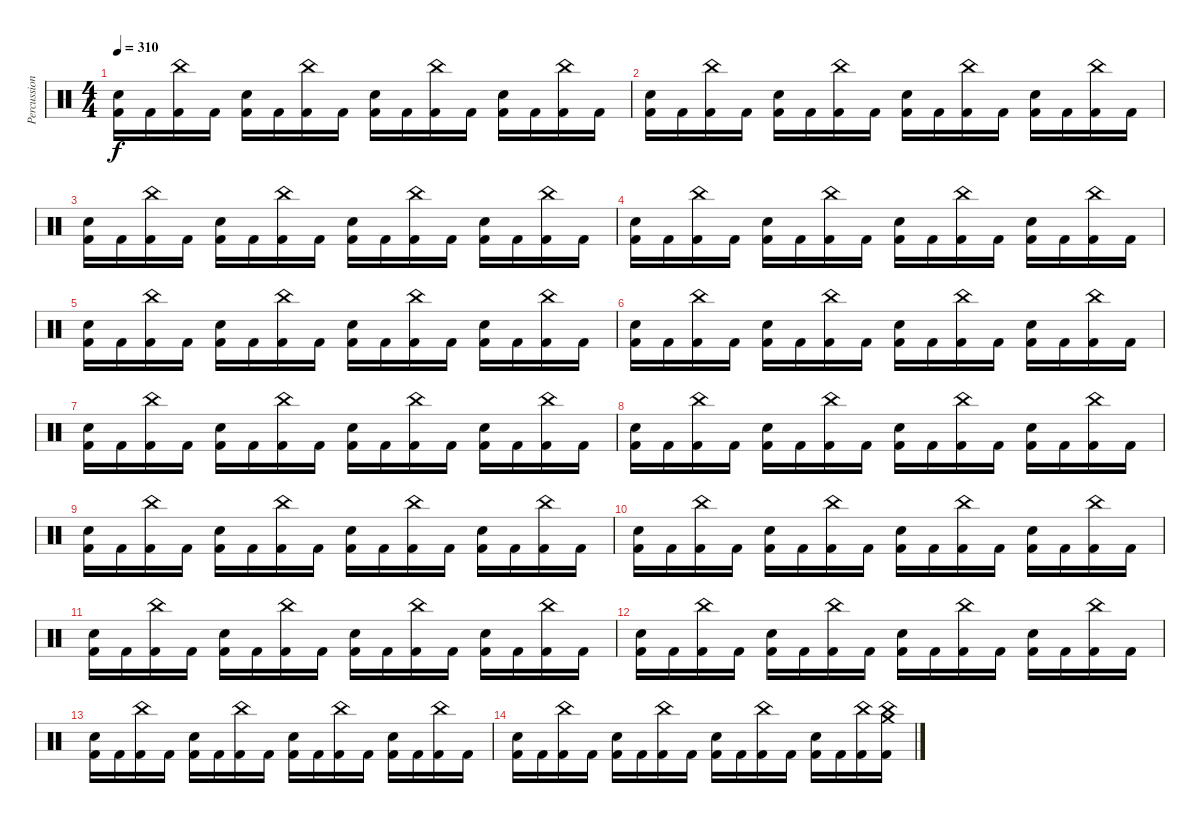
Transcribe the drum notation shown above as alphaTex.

\track ("Percussions" "Percussion") {instrument percussion}
\staff {score}
\articulation defaults
\ts (4 4)
\tempo 310
\clef neutral
\ks c
("Snare (hit) 2" "Kick (hit) 2").16{dy f} "Kick (hit) 2".16 ("China (hit)" "Kick (hit) 2").16 "Kick (hit) 2".16 ("Snare (hit) 2" "Kick (hit) 2").16 "Kick (hit) 2".16 ("China (hit)" "Kick (hit) 2").16 "Kick (hit) 2".16 ("Snare (hit) 2" "Kick (hit) 2").16 "Kick (hit) 2".16 ("China (hit)" "Kick (hit) 2").16 "Kick (hit) 2".16 ("Snare (hit) 2" "Kick (hit) 2").16 "Kick (hit) 2".16 ("China (hit)" "Kick (hit) 2").16 "Kick (hit) 2".16 |
("Snare (hit) 2" "Kick (hit) 2").16 "Kick (hit) 2".16 ("China (hit)" "Kick (hit) 2").16 "Kick (hit) 2".16 ("Snare (hit) 2" "Kick (hit) 2").16 "Kick (hit) 2".16 ("China (hit)" "Kick (hit) 2").16 "Kick (hit) 2".16 ("Snare (hit) 2" "Kick (hit) 2").16 "Kick (hit) 2".16 ("China (hit)" "Kick (hit) 2").16 "Kick (hit) 2".16 ("Snare (hit) 2" "Kick (hit) 2").16 "Kick (hit) 2".16 ("China (hit)" "Kick (hit) 2").16 "Kick (hit) 2".16 |
("Snare (hit) 2" "Kick (hit) 2").16 "Kick (hit) 2".16 ("China (hit)" "Kick (hit) 2").16 "Kick (hit) 2".16 ("Snare (hit) 2" "Kick (hit) 2").16 "Kick (hit) 2".16 ("China (hit)" "Kick (hit) 2").16 "Kick (hit) 2".16 ("Snare (hit) 2" "Kick (hit) 2").16 "Kick (hit) 2".16 ("China (hit)" "Kick (hit) 2").16 "Kick (hit) 2".16 ("Snare (hit) 2" "Kick (hit) 2").16 "Kick (hit) 2".16 ("China (hit)" "Kick (hit) 2").16 "Kick (hit) 2".16 |
("Snare (hit) 2" "Kick (hit) 2").16 "Kick (hit) 2".16 ("China (hit)" "Kick (hit) 2").16 "Kick (hit) 2".16 ("Snare (hit) 2" "Kick (hit) 2").16 "Kick (hit) 2".16 ("China (hit)" "Kick (hit) 2").16 "Kick (hit) 2".16 ("Snare (hit) 2" "Kick (hit) 2").16 "Kick (hit) 2".16 ("China (hit)" "Kick (hit) 2").16 "Kick (hit) 2".16 ("Snare (hit) 2" "Kick (hit) 2").16 "Kick (hit) 2".16 ("China (hit)" "Kick (hit) 2").16 "Kick (hit) 2".16 |
("Snare (hit) 2" "Kick (hit) 2").16 "Kick (hit) 2".16 ("China (hit)" "Kick (hit) 2").16 "Kick (hit) 2".16 ("Snare (hit) 2" "Kick (hit) 2").16 "Kick (hit) 2".16 ("China (hit)" "Kick (hit) 2").16 "Kick (hit) 2".16 ("Snare (hit) 2" "Kick (hit) 2").16 "Kick (hit) 2".16 ("China (hit)" "Kick (hit) 2").16 "Kick (hit) 2".16 ("Snare (hit) 2" "Kick (hit) 2").16 "Kick (hit) 2".16 ("China (hit)" "Kick (hit) 2").16 "Kick (hit) 2".16 |
("Snare (hit) 2" "Kick (hit) 2").16 "Kick (hit) 2".16 ("China (hit)" "Kick (hit) 2").16 "Kick (hit) 2".16 ("Snare (hit) 2" "Kick (hit) 2").16 "Kick (hit) 2".16 ("China (hit)" "Kick (hit) 2").16 "Kick (hit) 2".16 ("Snare (hit) 2" "Kick (hit) 2").16 "Kick (hit) 2".16 ("China (hit)" "Kick (hit) 2").16 "Kick (hit) 2".16 ("Snare (hit) 2" "Kick (hit) 2").16 "Kick (hit) 2".16 ("China (hit)" "Kick (hit) 2").16 "Kick (hit) 2".16 |
("Snare (hit) 2" "Kick (hit) 2").16 "Kick (hit) 2".16 ("China (hit)" "Kick (hit) 2").16 "Kick (hit) 2".16 ("Snare (hit) 2" "Kick (hit) 2").16 "Kick (hit) 2".16 ("China (hit)" "Kick (hit) 2").16 "Kick (hit) 2".16 ("Snare (hit) 2" "Kick (hit) 2").16 "Kick (hit) 2".16 ("China (hit)" "Kick (hit) 2").16 "Kick (hit) 2".16 ("Snare (hit) 2" "Kick (hit) 2").16 "Kick (hit) 2".16 ("China (hit)" "Kick (hit) 2").16 "Kick (hit) 2".16 |
("Snare (hit) 2" "Kick (hit) 2").16 "Kick (hit) 2".16 ("China (hit)" "Kick (hit) 2").16 "Kick (hit) 2".16 ("Snare (hit) 2" "Kick (hit) 2").16 "Kick (hit) 2".16 ("China (hit)" "Kick (hit) 2").16 "Kick (hit) 2".16 ("Snare (hit) 2" "Kick (hit) 2").16 "Kick (hit) 2".16 ("China (hit)" "Kick (hit) 2").16 "Kick (hit) 2".16 ("Snare (hit) 2" "Kick (hit) 2").16 "Kick (hit) 2".16 ("China (hit)" "Kick (hit) 2").16 "Kick (hit) 2".16 |
("Snare (hit) 2" "Kick (hit) 2").16 "Kick (hit) 2".16 ("China (hit)" "Kick (hit) 2").16 "Kick (hit) 2".16 ("Snare (hit) 2" "Kick (hit) 2").16 "Kick (hit) 2".16 ("China (hit)" "Kick (hit) 2").16 "Kick (hit) 2".16 ("Snare (hit) 2" "Kick (hit) 2").16 "Kick (hit) 2".16 ("China (hit)" "Kick (hit) 2").16 "Kick (hit) 2".16 ("Snare (hit) 2" "Kick (hit) 2").16 "Kick (hit) 2".16 ("China (hit)" "Kick (hit) 2").16 "Kick (hit) 2".16 |
("Snare (hit) 2" "Kick (hit) 2").16 "Kick (hit) 2".16 ("China (hit)" "Kick (hit) 2").16 "Kick (hit) 2".16 ("Snare (hit) 2" "Kick (hit) 2").16 "Kick (hit) 2".16 ("China (hit)" "Kick (hit) 2").16 "Kick (hit) 2".16 ("Snare (hit) 2" "Kick (hit) 2").16 "Kick (hit) 2".16 ("China (hit)" "Kick (hit) 2").16 "Kick (hit) 2".16 ("Snare (hit) 2" "Kick (hit) 2").16 "Kick (hit) 2".16 ("China (hit)" "Kick (hit) 2").16 "Kick (hit) 2".16 |
("Snare (hit) 2" "Kick (hit) 2").16 "Kick (hit) 2".16 ("China (hit)" "Kick (hit) 2").16 "Kick (hit) 2".16 ("Snare (hit) 2" "Kick (hit) 2").16 "Kick (hit) 2".16 ("China (hit)" "Kick (hit) 2").16 "Kick (hit) 2".16 ("Snare (hit) 2" "Kick (hit) 2").16 "Kick (hit) 2".16 ("China (hit)" "Kick (hit) 2").16 "Kick (hit) 2".16 ("Snare (hit) 2" "Kick (hit) 2").16 "Kick (hit) 2".16 ("China (hit)" "Kick (hit) 2").16 "Kick (hit) 2".16 |
("Snare (hit) 2" "Kick (hit) 2").16 "Kick (hit) 2".16 ("China (hit)" "Kick (hit) 2").16 "Kick (hit) 2".16 ("Snare (hit) 2" "Kick (hit) 2").16 "Kick (hit) 2".16 ("China (hit)" "Kick (hit) 2").16 "Kick (hit) 2".16 ("Snare (hit) 2" "Kick (hit) 2").16 "Kick (hit) 2".16 ("China (hit)" "Kick (hit) 2").16 "Kick (hit) 2".16 ("Snare (hit) 2" "Kick (hit) 2").16 "Kick (hit) 2".16 ("China (hit)" "Kick (hit) 2").16 "Kick (hit) 2".16 |
("Snare (hit) 2" "Kick (hit) 2").16 "Kick (hit) 2".16 ("China (hit)" "Kick (hit) 2").16 "Kick (hit) 2".16 ("Snare (hit) 2" "Kick (hit) 2").16 "Kick (hit) 2".16 ("China (hit)" "Kick (hit) 2").16 "Kick (hit) 2".16 ("Snare (hit) 2" "Kick (hit) 2").16 "Kick (hit) 2".16 ("China (hit)" "Kick (hit) 2").16 "Kick (hit) 2".16 ("Snare (hit) 2" "Kick (hit) 2").16 "Kick (hit) 2".16 ("China (hit)" "Kick (hit) 2").16 "Kick (hit) 2".16 |
("Snare (hit) 2" "Kick (hit) 2").16 "Kick (hit) 2".16 ("China (hit)" "Kick (hit) 2").16 "Kick (hit) 2".16 ("Snare (hit) 2" "Kick (hit) 2").16 "Kick (hit) 2".16 ("China (hit)" "Kick (hit) 2").16 "Kick (hit) 2".16 ("Snare (hit) 2" "Kick (hit) 2").16 "Kick (hit) 2".16 ("China (hit)" "Kick (hit) 2").16 "Kick (hit) 2".16 ("Snare (hit) 2" "Kick (hit) 2").16 "Kick (hit) 2".16 ("China (hit)" "Kick (hit) 2").16 ("Crash medium (hit)" "China (hit)" "Kick (hit) 2").16
